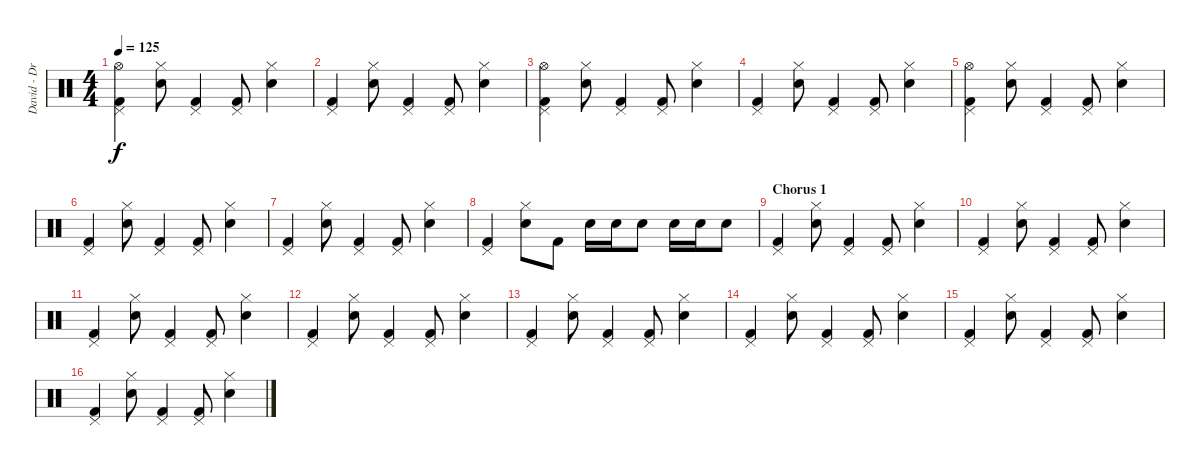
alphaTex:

\track ("David - Drums" "David - Dr") {instrument percussion}
\staff {score}
\articulation defaults
\ts (4 4)
\tempo 125
\clef neutral
\ks c
("Kick (hit) 2" "Pedal Hi-Hat (hit)" "Hi-Hat (open)").4{dy f} ("Snare (hit) 2" "Hi-Hat (closed)").8 ("Kick (hit) 2" "Pedal Hi-Hat (hit)").4 ("Kick (hit) 2" "Pedal Hi-Hat (hit)").8 ("Snare (hit) 2" "Hi-Hat (closed)").4 |
("Kick (hit) 2" "Pedal Hi-Hat (hit)").4 ("Snare (hit) 2" "Hi-Hat (closed)").8 ("Kick (hit) 2" "Pedal Hi-Hat (hit)").4 ("Kick (hit) 2" "Pedal Hi-Hat (hit)").8 ("Snare (hit) 2" "Hi-Hat (closed)").4 |
("Kick (hit) 2" "Pedal Hi-Hat (hit)" "Hi-Hat (open)").4 ("Snare (hit) 2" "Hi-Hat (closed)").8 ("Kick (hit) 2" "Pedal Hi-Hat (hit)").4 ("Kick (hit) 2" "Pedal Hi-Hat (hit)").8 ("Snare (hit) 2" "Hi-Hat (closed)").4 |
("Kick (hit) 2" "Pedal Hi-Hat (hit)").4 ("Snare (hit) 2" "Hi-Hat (closed)").8 ("Kick (hit) 2" "Pedal Hi-Hat (hit)").4 ("Kick (hit) 2" "Pedal Hi-Hat (hit)").8 ("Snare (hit) 2" "Hi-Hat (closed)").4 |
("Kick (hit) 2" "Pedal Hi-Hat (hit)" "Hi-Hat (open)").4 ("Snare (hit) 2" "Hi-Hat (closed)").8 ("Kick (hit) 2" "Pedal Hi-Hat (hit)").4 ("Kick (hit) 2" "Pedal Hi-Hat (hit)").8 ("Snare (hit) 2" "Hi-Hat (closed)").4 |
("Kick (hit) 2" "Pedal Hi-Hat (hit)").4 ("Snare (hit) 2" "Hi-Hat (closed)").8 ("Kick (hit) 2" "Pedal Hi-Hat (hit)").4 ("Kick (hit) 2" "Pedal Hi-Hat (hit)").8 ("Snare (hit) 2" "Hi-Hat (closed)").4 |
("Kick (hit) 2" "Pedal Hi-Hat (hit)").4 ("Snare (hit) 2" "Hi-Hat (closed)").8 ("Kick (hit) 2" "Pedal Hi-Hat (hit)").4 ("Kick (hit) 2" "Pedal Hi-Hat (hit)").8 ("Snare (hit) 2" "Hi-Hat (closed)").4 |
("Kick (hit) 2" "Pedal Hi-Hat (hit)").4 ("Snare (hit) 2" "Hi-Hat (closed)").8 "Kick (hit) 2".8 "Snare (hit) 2".16 "Snare (hit) 2".16 "Snare (hit) 2".8 "Snare (hit) 2".16 "Snare (hit) 2".16 "Snare (hit) 2".8 |
\section ("" "Chorus 1")
("Kick (hit) 2" "Pedal Hi-Hat (hit)").4 ("Snare (hit) 2" "Hi-Hat (closed)").8 ("Kick (hit) 2" "Pedal Hi-Hat (hit)").4 ("Kick (hit) 2" "Pedal Hi-Hat (hit)").8 ("Snare (hit) 2" "Hi-Hat (closed)").4 |
("Kick (hit) 2" "Pedal Hi-Hat (hit)").4 ("Snare (hit) 2" "Hi-Hat (closed)").8 ("Kick (hit) 2" "Pedal Hi-Hat (hit)").4 ("Kick (hit) 2" "Pedal Hi-Hat (hit)").8 ("Snare (hit) 2" "Hi-Hat (closed)").4 |
("Kick (hit) 2" "Pedal Hi-Hat (hit)").4 ("Snare (hit) 2" "Hi-Hat (closed)").8 ("Kick (hit) 2" "Pedal Hi-Hat (hit)").4 ("Kick (hit) 2" "Pedal Hi-Hat (hit)").8 ("Snare (hit) 2" "Hi-Hat (closed)").4 |
("Kick (hit) 2" "Pedal Hi-Hat (hit)").4 ("Snare (hit) 2" "Hi-Hat (closed)").8 ("Kick (hit) 2" "Pedal Hi-Hat (hit)").4 ("Kick (hit) 2" "Pedal Hi-Hat (hit)").8 ("Snare (hit) 2" "Hi-Hat (closed)").4 |
("Kick (hit) 2" "Pedal Hi-Hat (hit)").4 ("Snare (hit) 2" "Hi-Hat (closed)").8 ("Kick (hit) 2" "Pedal Hi-Hat (hit)").4 ("Kick (hit) 2" "Pedal Hi-Hat (hit)").8 ("Snare (hit) 2" "Hi-Hat (closed)").4 |
("Kick (hit) 2" "Pedal Hi-Hat (hit)").4 ("Snare (hit) 2" "Hi-Hat (closed)").8 ("Kick (hit) 2" "Pedal Hi-Hat (hit)").4 ("Kick (hit) 2" "Pedal Hi-Hat (hit)").8 ("Snare (hit) 2" "Hi-Hat (closed)").4 |
("Kick (hit) 2" "Pedal Hi-Hat (hit)").4 ("Snare (hit) 2" "Hi-Hat (closed)").8 ("Kick (hit) 2" "Pedal Hi-Hat (hit)").4 ("Kick (hit) 2" "Pedal Hi-Hat (hit)").8 ("Snare (hit) 2" "Hi-Hat (closed)").4 |
("Kick (hit) 2" "Pedal Hi-Hat (hit)").4 ("Snare (hit) 2" "Hi-Hat (closed)").8 ("Kick (hit) 2" "Pedal Hi-Hat (hit)").4 ("Kick (hit) 2" "Pedal Hi-Hat (hit)").8 ("Snare (hit) 2" "Hi-Hat (closed)").4
